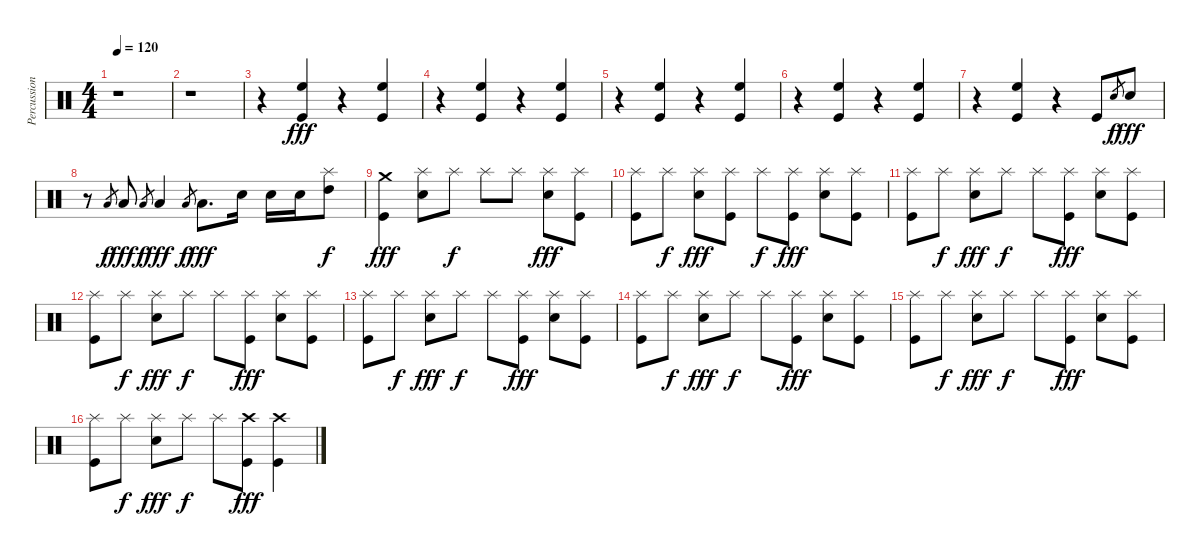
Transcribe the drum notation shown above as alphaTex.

\track ("Percussion" "Percussion") {instrument percussion}
\staff {score}
\articulation defaults
\ts (4 4)
\tempo 120
\clef neutral
\ks c
r.1{dy fff} |
r.1 |
r.4 ("High Floor Tom (hit)" "Kick (hit)").4 r.4 ("High Floor Tom (hit)" "Kick (hit)").4 |
r.4 ("High Floor Tom (hit)" "Kick (hit)").4 r.4 ("High Floor Tom (hit)" "Kick (hit)").4 |
r.4 ("High Floor Tom (hit)" "Kick (hit)").4 r.4 ("High Floor Tom (hit)" "Kick (hit)").4 |
r.4 ("High Floor Tom (hit)" "Kick (hit)").4 r.4 ("High Floor Tom (hit)" "Kick (hit)").4 |
r.4 ("High Floor Tom (hit)" "Kick (hit)").4 r.4 "Kick (hit)".8 "Snare (hit) 2".8{gr dy f} "Snare (hit) 2".8{dy fff} |
r.8 "Low Tom (hit)".8{gr dy f} "Low Tom (hit)".8{dy fff} "Low Tom (hit)".8{gr dy f} "Low Tom (hit)".4{dy fff} "Low Tom (hit)".8{gr dy f} "Low Tom (hit)".8{d dy fff} "Snare (hit) 2".16 "Snare (hit) 2".16 "Snare (hit) 2".16 ("Splash (hit)" "High Tom (hit)").8{dy f} |
("Crash medium (hit)" "Kick (hit)").4{dy fff} ("Splash (hit)" "Snare (hit) 2").8 "Splash (hit)".8{dy f} "Splash (hit)".8 "Splash (hit)".8 ("Splash (hit)" "Snare (hit) 2").8{dy fff} ("Splash (hit)" "Kick (hit)").8 |
("Splash (hit)" "Kick (hit)").8 "Splash (hit)".8{dy f} ("Splash (hit)" "Snare (hit) 2").8{dy fff} ("Splash (hit)" "Kick (hit)").8 "Splash (hit)".8{dy f} ("Splash (hit)" "Kick (hit)").8{dy fff} ("Splash (hit)" "Snare (hit) 2").8 ("Splash (hit)" "Kick (hit)").8 |
("Splash (hit)" "Kick (hit)").8 "Splash (hit)".8{dy f} ("Splash (hit)" "Snare (hit) 2").8{dy fff} "Splash (hit)".8{dy f} "Splash (hit)".8 ("Splash (hit)" "Kick (hit)").8{dy fff} ("Splash (hit)" "Snare (hit) 2").8 ("Splash (hit)" "Kick (hit)").8 |
("Splash (hit)" "Kick (hit)").8 "Splash (hit)".8{dy f} ("Splash (hit)" "Snare (hit) 2").8{dy fff} "Splash (hit)".8{dy f} "Splash (hit)".8 ("Splash (hit)" "Kick (hit)").8{dy fff} ("Splash (hit)" "Snare (hit) 2").8 ("Splash (hit)" "Kick (hit)").8 |
("Splash (hit)" "Kick (hit)").8 "Splash (hit)".8{dy f} ("Splash (hit)" "Snare (hit) 2").8{dy fff} "Splash (hit)".8{dy f} "Splash (hit)".8 ("Splash (hit)" "Kick (hit)").8{dy fff} ("Splash (hit)" "Snare (hit) 2").8 ("Splash (hit)" "Kick (hit)").8 |
("Splash (hit)" "Kick (hit)").8 "Splash (hit)".8{dy f} ("Splash (hit)" "Snare (hit) 2").8{dy fff} "Splash (hit)".8{dy f} "Splash (hit)".8 ("Splash (hit)" "Kick (hit)").8{dy fff} ("Splash (hit)" "Snare (hit) 2").8 ("Splash (hit)" "Kick (hit)").8 |
("Splash (hit)" "Kick (hit)").8 "Splash (hit)".8{dy f} ("Splash (hit)" "Snare (hit) 2").8{dy fff} "Splash (hit)".8{dy f} "Splash (hit)".8 ("Splash (hit)" "Kick (hit)").8{dy fff} ("Splash (hit)" "Snare (hit) 2").8 ("Splash (hit)" "Kick (hit)").8 |
("Splash (hit)" "Kick (hit)").8 "Splash (hit)".8{dy f} ("Splash (hit)" "Snare (hit) 2").8{dy fff} "Splash (hit)".8{dy f} "Splash (hit)".8 ("Crash high (hit)" "Kick (hit)").8{dy fff} ("Crash high (hit)" "Kick (hit)").4
